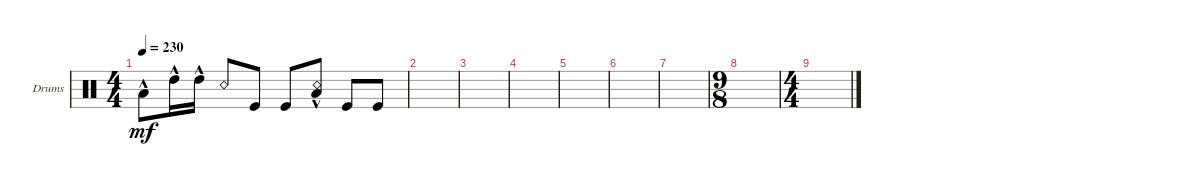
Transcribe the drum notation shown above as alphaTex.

\bracketExtendMode groupsimilarinstruments
\firstSystemTrackNameOrientation horizontal
\otherSystemsTrackNameOrientation horizontal
\track ("Drumkit" "Drums") {mute instrument percussion}
\staff {score}
\articulation defaults
\ts (4 4)
\tempo 230
\clef neutral
\ks c "Low Tom (hit)"{hac}.8{dy mf} "High Tom (hit)"{hac}.16 "High Tom (hit)"{hac}.16 "Snare (rim shot)".8 "Kick (hit)".8 "Kick (hit)".8
("Low Tom (hit)"{hac} "Snare (rim shot)").8 "Kick (hit)".8 "Kick (hit)".8 |
|
|
|
|
|
|
\ts (9 8)
|
\ts (4 4)
